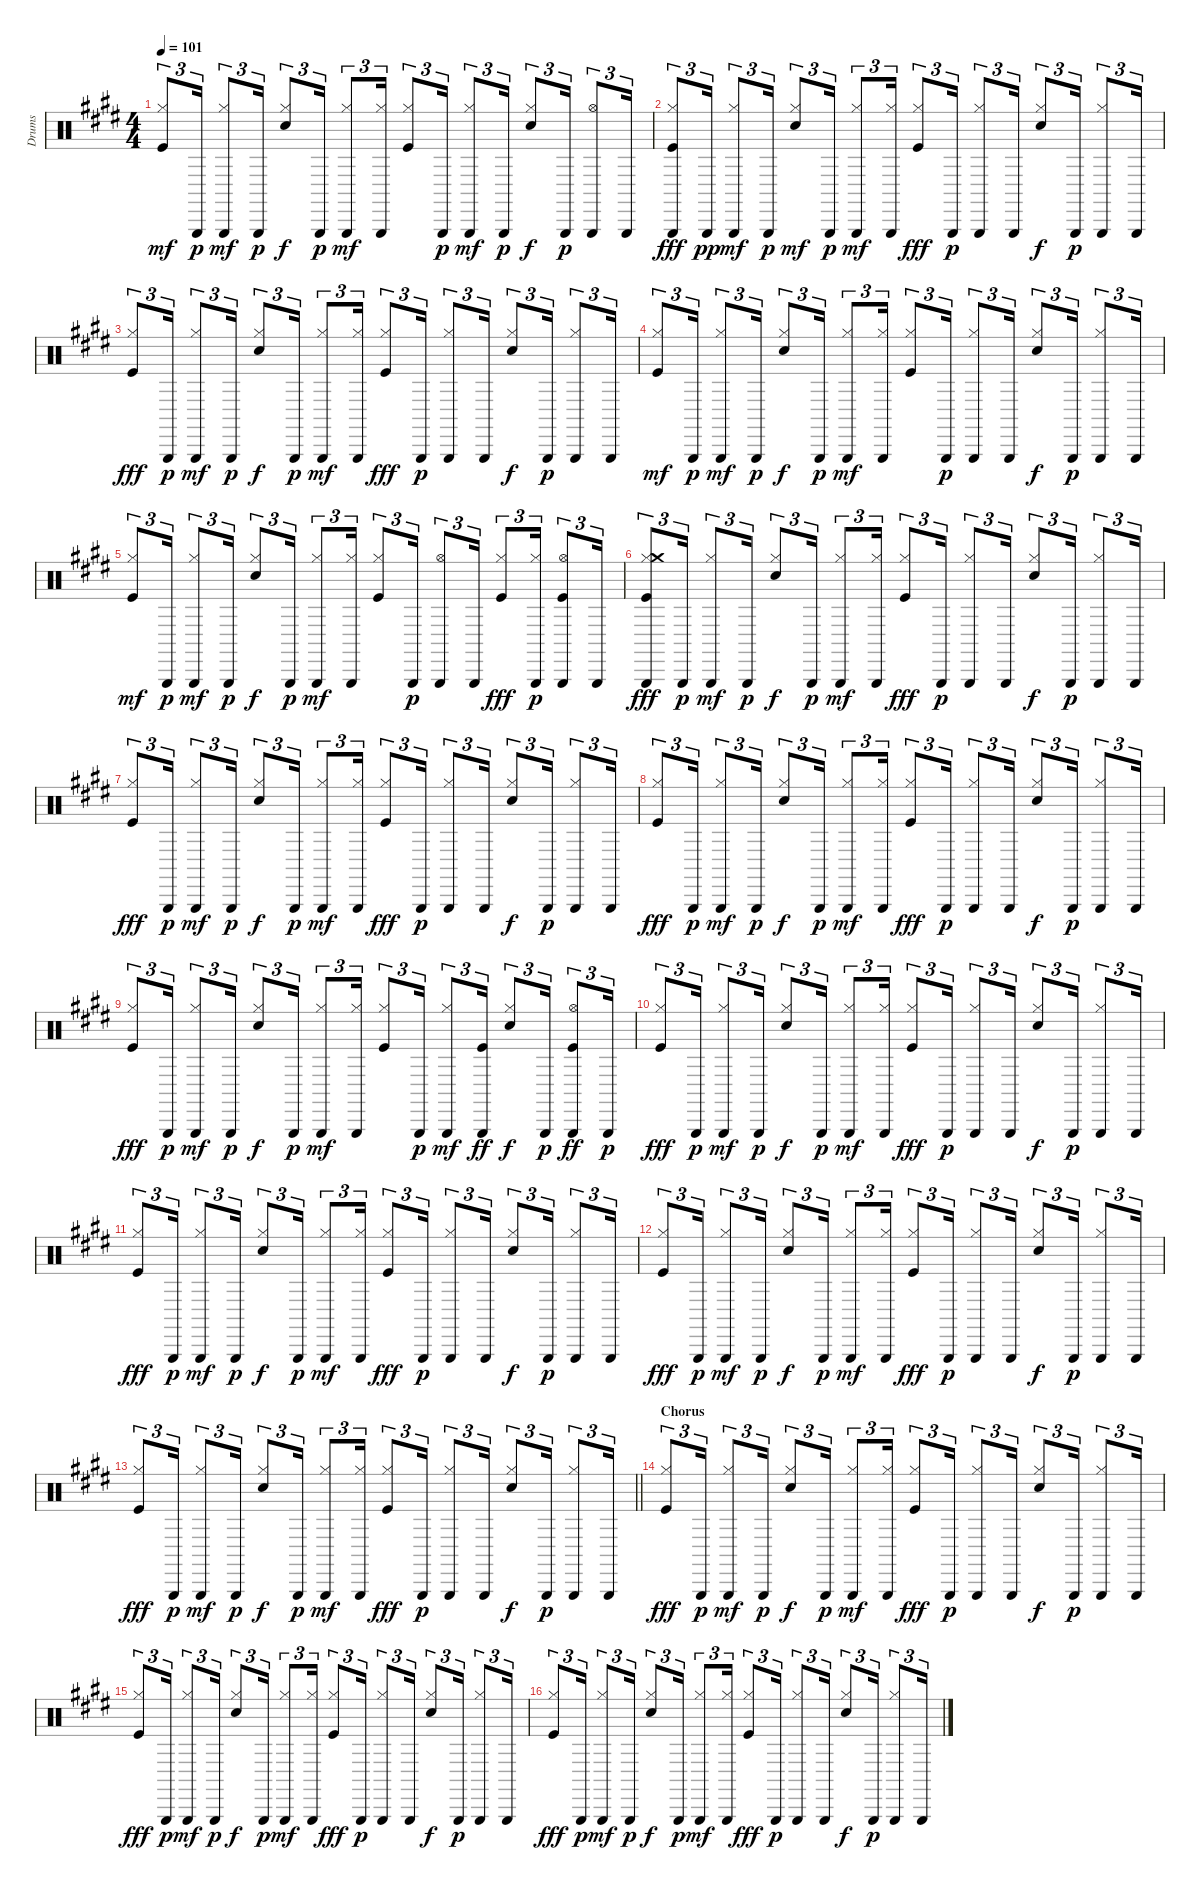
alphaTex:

\track ("Drums" "Drums") {instrument percussion}
\staff {score}
\articulation defaults
\ts (4 4)
\tempo 101
\clef neutral
\ks e
("Kick (hit)" "Hi-Hat (closed)").8{tu (3 2) dy mf} "Triangle (hit)".16{tu (3 2) dy p} ("Triangle (hit)" "Hi-Hat (closed)").8{tu (3 2) dy mf} "Triangle (hit)".16{tu (3 2) dy p} ("Electric Snare (hit)" "Hi-Hat (closed)").8{tu (3 2) dy f} "Triangle (hit)".16{tu (3 2) dy p} ("Triangle (hit)" "Hi-Hat (closed)").8{tu (3 2) dy mf} ("Triangle (hit)" "Hi-Hat (closed)").16{tu (3 2)} ("Kick (hit)" "Hi-Hat (closed)").8{tu (3 2)} "Triangle (hit)".16{tu (3 2) dy p} ("Triangle (hit)" "Hi-Hat (closed)").8{tu (3 2) dy mf} "Triangle (hit)".16{tu (3 2) dy p} ("Electric Snare (hit)" "Hi-Hat (closed)").8{tu (3 2) dy f} "Triangle (hit)".16{tu (3 2) dy p} ("Hi-Hat (open)" "Triangle (hit)").8{tu (3 2)} "Triangle (hit)".16{tu (3 2)} |
("Triangle (hit)" "Kick (hit)" "Hi-Hat (closed)").8{tu (3 2) dy fff} "Triangle (hit)".16{tu (3 2) dy pp} ("Triangle (hit)" "Hi-Hat (closed)").8{tu (3 2) dy mf} "Triangle (hit)".16{tu (3 2) dy p} ("Electric Snare (hit)" "Hi-Hat (closed)").8{tu (3 2) dy mf} "Triangle (hit)".16{tu (3 2) dy p} ("Triangle (hit)" "Hi-Hat (closed)").8{tu (3 2) dy mf} ("Triangle (hit)" "Hi-Hat (closed)").16{tu (3 2)} ("Kick (hit)" "Hi-Hat (closed)").8{tu (3 2) dy fff} "Triangle (hit)".16{tu (3 2) dy p} ("Triangle (hit)" "Hi-Hat (closed)").8{tu (3 2)} "Triangle (hit)".16{tu (3 2)} ("Electric Snare (hit)" "Hi-Hat (closed)").8{tu (3 2) dy f} "Triangle (hit)".16{tu (3 2) dy p} ("Triangle (hit)" "Hi-Hat (closed)").8{tu (3 2)} "Triangle (hit)".16{tu (3 2)} |
("Kick (hit)" "Hi-Hat (closed)").8{tu (3 2) dy fff} "Triangle (hit)".16{tu (3 2) dy p} ("Triangle (hit)" "Hi-Hat (closed)").8{tu (3 2) dy mf} "Triangle (hit)".16{tu (3 2) dy p} ("Electric Snare (hit)" "Hi-Hat (closed)").8{tu (3 2) dy f} "Triangle (hit)".16{tu (3 2) dy p} ("Triangle (hit)" "Hi-Hat (closed)").8{tu (3 2) dy mf} ("Triangle (hit)" "Hi-Hat (closed)").16{tu (3 2)} ("Kick (hit)" "Hi-Hat (closed)").8{tu (3 2) dy fff} "Triangle (hit)".16{tu (3 2) dy p} ("Triangle (hit)" "Hi-Hat (closed)").8{tu (3 2)} "Triangle (hit)".16{tu (3 2)} ("Electric Snare (hit)" "Hi-Hat (closed)").8{tu (3 2) dy f} "Triangle (hit)".16{tu (3 2) dy p} ("Triangle (hit)" "Hi-Hat (closed)").8{tu (3 2)} "Triangle (hit)".16{tu (3 2)} |
("Kick (hit)" "Hi-Hat (closed)").8{tu (3 2) dy mf} "Triangle (hit)".16{tu (3 2) dy p} ("Triangle (hit)" "Hi-Hat (closed)").8{tu (3 2) dy mf} "Triangle (hit)".16{tu (3 2) dy p} ("Electric Snare (hit)" "Hi-Hat (closed)").8{tu (3 2) dy f} "Triangle (hit)".16{tu (3 2) dy p} ("Triangle (hit)" "Hi-Hat (closed)").8{tu (3 2) dy mf} ("Triangle (hit)" "Hi-Hat (closed)").16{tu (3 2)} ("Kick (hit)" "Hi-Hat (closed)").8{tu (3 2)} "Triangle (hit)".16{tu (3 2) dy p} ("Triangle (hit)" "Hi-Hat (closed)").8{tu (3 2)} "Triangle (hit)".16{tu (3 2)} ("Electric Snare (hit)" "Hi-Hat (closed)").8{tu (3 2) dy f} "Triangle (hit)".16{tu (3 2) dy p} ("Triangle (hit)" "Hi-Hat (closed)").8{tu (3 2)} "Triangle (hit)".16{tu (3 2)} |
("Kick (hit)" "Hi-Hat (closed)").8{tu (3 2) dy mf} "Triangle (hit)".16{tu (3 2) dy p} ("Triangle (hit)" "Hi-Hat (closed)").8{tu (3 2) dy mf} "Triangle (hit)".16{tu (3 2) dy p} ("Electric Snare (hit)" "Hi-Hat (closed)").8{tu (3 2) dy f} "Triangle (hit)".16{tu (3 2) dy p} ("Triangle (hit)" "Hi-Hat (closed)").8{tu (3 2) dy mf} ("Triangle (hit)" "Hi-Hat (closed)").16{tu (3 2)} ("Kick (hit)" "Hi-Hat (closed)").8{tu (3 2)} "Triangle (hit)".16{tu (3 2) dy p} ("Hi-Hat (open)" "Triangle (hit)").8{tu (3 2)} "Triangle (hit)".16{tu (3 2)} ("Kick (hit)" "Hi-Hat (closed)").8{tu (3 2) dy fff} ("Triangle (hit)" "Hi-Hat (closed)").16{tu (3 2) dy p} ("Hi-Hat (open)" "Triangle (hit)" "Kick (hit)").8{tu (3 2)} "Triangle (hit)".16{tu (3 2)} |
("Triangle (hit)" "Kick (hit)" "Hi-Hat (closed)" "Crash medium (hit)").8{tu (3 2) dy fff} "Triangle (hit)".16{tu (3 2) dy p} ("Triangle (hit)" "Hi-Hat (closed)").8{tu (3 2) dy mf} "Triangle (hit)".16{tu (3 2) dy p} ("Electric Snare (hit)" "Hi-Hat (closed)").8{tu (3 2) dy f} "Triangle (hit)".16{tu (3 2) dy p} ("Triangle (hit)" "Hi-Hat (closed)").8{tu (3 2) dy mf} ("Triangle (hit)" "Hi-Hat (closed)").16{tu (3 2)} ("Kick (hit)" "Hi-Hat (closed)").8{tu (3 2) dy fff} "Triangle (hit)".16{tu (3 2) dy p} ("Triangle (hit)" "Hi-Hat (closed)").8{tu (3 2)} "Triangle (hit)".16{tu (3 2)} ("Electric Snare (hit)" "Hi-Hat (closed)").8{tu (3 2) dy f} "Triangle (hit)".16{tu (3 2) dy p} ("Triangle (hit)" "Hi-Hat (closed)").8{tu (3 2)} "Triangle (hit)".16{tu (3 2)} |
("Kick (hit)" "Hi-Hat (closed)").8{tu (3 2) dy fff} "Triangle (hit)".16{tu (3 2) dy p} ("Triangle (hit)" "Hi-Hat (closed)").8{tu (3 2) dy mf} "Triangle (hit)".16{tu (3 2) dy p} ("Electric Snare (hit)" "Hi-Hat (closed)").8{tu (3 2) dy f} "Triangle (hit)".16{tu (3 2) dy p} ("Triangle (hit)" "Hi-Hat (closed)").8{tu (3 2) dy mf} ("Triangle (hit)" "Hi-Hat (closed)").16{tu (3 2)} ("Kick (hit)" "Hi-Hat (closed)").8{tu (3 2) dy fff} "Triangle (hit)".16{tu (3 2) dy p} ("Triangle (hit)" "Hi-Hat (closed)").8{tu (3 2)} "Triangle (hit)".16{tu (3 2)} ("Electric Snare (hit)" "Hi-Hat (closed)").8{tu (3 2) dy f} "Triangle (hit)".16{tu (3 2) dy p} ("Triangle (hit)" "Hi-Hat (closed)").8{tu (3 2)} "Triangle (hit)".16{tu (3 2)} |
("Kick (hit)" "Hi-Hat (closed)").8{tu (3 2) dy fff} "Triangle (hit)".16{tu (3 2) dy p} ("Triangle (hit)" "Hi-Hat (closed)").8{tu (3 2) dy mf} "Triangle (hit)".16{tu (3 2) dy p} ("Electric Snare (hit)" "Hi-Hat (closed)").8{tu (3 2) dy f} "Triangle (hit)".16{tu (3 2) dy p} ("Triangle (hit)" "Hi-Hat (closed)").8{tu (3 2) dy mf} ("Triangle (hit)" "Hi-Hat (closed)").16{tu (3 2)} ("Kick (hit)" "Hi-Hat (closed)").8{tu (3 2) dy fff} "Triangle (hit)".16{tu (3 2) dy p} ("Triangle (hit)" "Hi-Hat (closed)").8{tu (3 2)} "Triangle (hit)".16{tu (3 2)} ("Electric Snare (hit)" "Hi-Hat (closed)").8{tu (3 2) dy f} "Triangle (hit)".16{tu (3 2) dy p} ("Triangle (hit)" "Hi-Hat (closed)").8{tu (3 2)} "Triangle (hit)".16{tu (3 2)} |
("Kick (hit)" "Hi-Hat (closed)").8{tu (3 2) dy fff} "Triangle (hit)".16{tu (3 2) dy p} ("Triangle (hit)" "Hi-Hat (closed)").8{tu (3 2) dy mf} "Triangle (hit)".16{tu (3 2) dy p} ("Electric Snare (hit)" "Hi-Hat (closed)").8{tu (3 2) dy f} "Triangle (hit)".16{tu (3 2) dy p} ("Triangle (hit)" "Hi-Hat (closed)").8{tu (3 2) dy mf} ("Triangle (hit)" "Hi-Hat (closed)").16{tu (3 2)} ("Kick (hit)" "Hi-Hat (closed)").8{tu (3 2)} "Triangle (hit)".16{tu (3 2) dy p} ("Triangle (hit)" "Hi-Hat (closed)").8{tu (3 2) dy mf} ("Triangle (hit)" "Kick (hit)").16{tu (3 2) dy ff} ("Electric Snare (hit)" "Hi-Hat (closed)").8{tu (3 2) dy f} "Triangle (hit)".16{tu (3 2) dy p} ("Hi-Hat (open)" "Triangle (hit)" "Kick (hit)").8{tu (3 2) dy ff} "Triangle (hit)".16{tu (3 2) dy p} |
("Kick (hit)" "Hi-Hat (closed)").8{tu (3 2) dy fff} "Triangle (hit)".16{tu (3 2) dy p} ("Triangle (hit)" "Hi-Hat (closed)").8{tu (3 2) dy mf} "Triangle (hit)".16{tu (3 2) dy p} ("Electric Snare (hit)" "Hi-Hat (closed)").8{tu (3 2) dy f} "Triangle (hit)".16{tu (3 2) dy p} ("Triangle (hit)" "Hi-Hat (closed)").8{tu (3 2) dy mf} ("Triangle (hit)" "Hi-Hat (closed)").16{tu (3 2)} ("Kick (hit)" "Hi-Hat (closed)").8{tu (3 2) dy fff} "Triangle (hit)".16{tu (3 2) dy p} ("Triangle (hit)" "Hi-Hat (closed)").8{tu (3 2)} "Triangle (hit)".16{tu (3 2)} ("Electric Snare (hit)" "Hi-Hat (closed)").8{tu (3 2) dy f} "Triangle (hit)".16{tu (3 2) dy p} ("Triangle (hit)" "Hi-Hat (closed)").8{tu (3 2)} "Triangle (hit)".16{tu (3 2)} |
("Kick (hit)" "Hi-Hat (closed)").8{tu (3 2) dy fff} "Triangle (hit)".16{tu (3 2) dy p} ("Triangle (hit)" "Hi-Hat (closed)").8{tu (3 2) dy mf} "Triangle (hit)".16{tu (3 2) dy p} ("Electric Snare (hit)" "Hi-Hat (closed)").8{tu (3 2) dy f} "Triangle (hit)".16{tu (3 2) dy p} ("Triangle (hit)" "Hi-Hat (closed)").8{tu (3 2) dy mf} ("Triangle (hit)" "Hi-Hat (closed)").16{tu (3 2)} ("Kick (hit)" "Hi-Hat (closed)").8{tu (3 2) dy fff} "Triangle (hit)".16{tu (3 2) dy p} ("Triangle (hit)" "Hi-Hat (closed)").8{tu (3 2)} "Triangle (hit)".16{tu (3 2)} ("Electric Snare (hit)" "Hi-Hat (closed)").8{tu (3 2) dy f} "Triangle (hit)".16{tu (3 2) dy p} ("Triangle (hit)" "Hi-Hat (closed)").8{tu (3 2)} "Triangle (hit)".16{tu (3 2)} |
("Kick (hit)" "Hi-Hat (closed)").8{tu (3 2) dy fff} "Triangle (hit)".16{tu (3 2) dy p} ("Triangle (hit)" "Hi-Hat (closed)").8{tu (3 2) dy mf} "Triangle (hit)".16{tu (3 2) dy p} ("Electric Snare (hit)" "Hi-Hat (closed)").8{tu (3 2) dy f} "Triangle (hit)".16{tu (3 2) dy p} ("Triangle (hit)" "Hi-Hat (closed)").8{tu (3 2) dy mf} ("Triangle (hit)" "Hi-Hat (closed)").16{tu (3 2)} ("Kick (hit)" "Hi-Hat (closed)").8{tu (3 2) dy fff} "Triangle (hit)".16{tu (3 2) dy p} ("Triangle (hit)" "Hi-Hat (closed)").8{tu (3 2)} "Triangle (hit)".16{tu (3 2)} ("Electric Snare (hit)" "Hi-Hat (closed)").8{tu (3 2) dy f} "Triangle (hit)".16{tu (3 2) dy p} ("Triangle (hit)" "Hi-Hat (closed)").8{tu (3 2)} "Triangle (hit)".16{tu (3 2)} |
\barLineRight lightlight
("Kick (hit)" "Hi-Hat (closed)").8{tu (3 2) dy fff} "Triangle (hit)".16{tu (3 2) dy p} ("Triangle (hit)" "Hi-Hat (closed)").8{tu (3 2) dy mf} "Triangle (hit)".16{tu (3 2) dy p} ("Electric Snare (hit)" "Hi-Hat (closed)").8{tu (3 2) dy f} "Triangle (hit)".16{tu (3 2) dy p} ("Triangle (hit)" "Hi-Hat (closed)").8{tu (3 2) dy mf} ("Triangle (hit)" "Hi-Hat (closed)").16{tu (3 2)} ("Kick (hit)" "Hi-Hat (closed)").8{tu (3 2) dy fff} "Triangle (hit)".16{tu (3 2) dy p} ("Triangle (hit)" "Hi-Hat (closed)").8{tu (3 2)} "Triangle (hit)".16{tu (3 2)} ("Electric Snare (hit)" "Hi-Hat (closed)").8{tu (3 2) dy f} "Triangle (hit)".16{tu (3 2) dy p} ("Triangle (hit)" "Hi-Hat (closed)").8{tu (3 2)} "Triangle (hit)".16{tu (3 2)} |
\section ("" "Chorus")
("Kick (hit)" "Hi-Hat (closed)").8{tu (3 2) dy fff} "Triangle (hit)".16{tu (3 2) dy p} ("Triangle (hit)" "Hi-Hat (closed)").8{tu (3 2) dy mf} "Triangle (hit)".16{tu (3 2) dy p} ("Electric Snare (hit)" "Hi-Hat (closed)").8{tu (3 2) dy f} "Triangle (hit)".16{tu (3 2) dy p} ("Triangle (hit)" "Hi-Hat (closed)").8{tu (3 2) dy mf} ("Triangle (hit)" "Hi-Hat (closed)").16{tu (3 2)} ("Kick (hit)" "Hi-Hat (closed)").8{tu (3 2) dy fff} "Triangle (hit)".16{tu (3 2) dy p} ("Triangle (hit)" "Hi-Hat (closed)").8{tu (3 2)} "Triangle (hit)".16{tu (3 2)} ("Electric Snare (hit)" "Hi-Hat (closed)").8{tu (3 2) dy f} "Triangle (hit)".16{tu (3 2) dy p} ("Triangle (hit)" "Hi-Hat (closed)").8{tu (3 2)} "Triangle (hit)".16{tu (3 2)} |
("Kick (hit)" "Hi-Hat (closed)").8{tu (3 2) dy fff} "Triangle (hit)".16{tu (3 2) dy p} ("Triangle (hit)" "Hi-Hat (closed)").8{tu (3 2) dy mf} "Triangle (hit)".16{tu (3 2) dy p} ("Electric Snare (hit)" "Hi-Hat (closed)").8{tu (3 2) dy f} "Triangle (hit)".16{tu (3 2) dy p} ("Triangle (hit)" "Hi-Hat (closed)").8{tu (3 2) dy mf} ("Triangle (hit)" "Hi-Hat (closed)").16{tu (3 2)} ("Kick (hit)" "Hi-Hat (closed)").8{tu (3 2) dy fff} "Triangle (hit)".16{tu (3 2) dy p} ("Triangle (hit)" "Hi-Hat (closed)").8{tu (3 2)} "Triangle (hit)".16{tu (3 2)} ("Electric Snare (hit)" "Hi-Hat (closed)").8{tu (3 2) dy f} "Triangle (hit)".16{tu (3 2) dy p} ("Triangle (hit)" "Hi-Hat (closed)").8{tu (3 2)} "Triangle (hit)".16{tu (3 2)} |
("Kick (hit)" "Hi-Hat (closed)").8{tu (3 2) dy fff} "Triangle (hit)".16{tu (3 2) dy p} ("Triangle (hit)" "Hi-Hat (closed)").8{tu (3 2) dy mf} "Triangle (hit)".16{tu (3 2) dy p} ("Electric Snare (hit)" "Hi-Hat (closed)").8{tu (3 2) dy f} "Triangle (hit)".16{tu (3 2) dy p} ("Triangle (hit)" "Hi-Hat (closed)").8{tu (3 2) dy mf} ("Triangle (hit)" "Hi-Hat (closed)").16{tu (3 2)} ("Kick (hit)" "Hi-Hat (closed)").8{tu (3 2) dy fff} "Triangle (hit)".16{tu (3 2) dy p} ("Triangle (hit)" "Hi-Hat (closed)").8{tu (3 2)} "Triangle (hit)".16{tu (3 2)} ("Electric Snare (hit)" "Hi-Hat (closed)").8{tu (3 2) dy f} "Triangle (hit)".16{tu (3 2) dy p} ("Triangle (hit)" "Hi-Hat (closed)").8{tu (3 2)} "Triangle (hit)".16{tu (3 2)}
